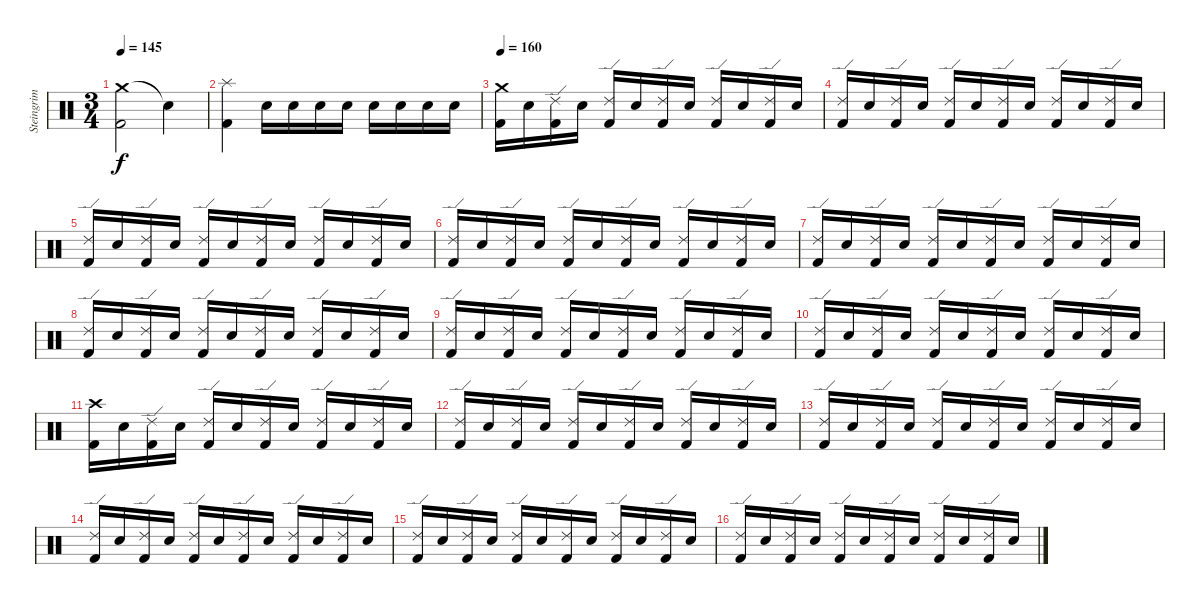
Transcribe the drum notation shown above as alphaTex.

\track ("Steingrim Trommur" "Steingrim ") {instrument percussion}
\staff {score}
\articulation defaults
\ts (3 4)
\tempo 145
\clef neutral
\ks c
("Crash medium (hit)" "Kick (hit) 2").2{dy f} "Snare (hit)"{t}.4 |
("Splash (hit)" "Kick (hit) 2").4 "Electric Snare (hit)".16 "Electric Snare (hit)".16 "Electric Snare (hit)".16 "Electric Snare (hit)".16 "Electric Snare (hit)".16 "Electric Snare (hit)".16 "Electric Snare (hit)".16 "Electric Snare (hit)".16 |
\tempo 160
("Crash medium (hit)" "Kick (hit) 2").16 "Electric Snare (hit)".16 ("Ride (edge) 2" "Kick (hit) 2").16 "Electric Snare (hit)".16 ("Ride (edge) 2" "Kick (hit) 2").16 "Electric Snare (hit)".16 ("Ride (edge) 2" "Kick (hit) 2").16 "Electric Snare (hit)".16 ("Ride (edge) 2" "Kick (hit) 2").16 "Electric Snare (hit)".16 ("Ride (edge) 2" "Kick (hit) 2").16 "Electric Snare (hit)".16 |
("Ride (edge) 2" "Kick (hit) 2").16 "Electric Snare (hit)".16 ("Ride (edge) 2" "Kick (hit) 2").16 "Electric Snare (hit)".16 ("Ride (edge) 2" "Kick (hit) 2").16 "Electric Snare (hit)".16 ("Ride (edge) 2" "Kick (hit) 2").16 "Electric Snare (hit)".16 ("Ride (edge) 2" "Kick (hit) 2").16 "Electric Snare (hit)".16 ("Ride (edge) 2" "Kick (hit) 2").16 "Electric Snare (hit)".16 |
("Ride (edge) 2" "Kick (hit) 2").16 "Electric Snare (hit)".16 ("Ride (edge) 2" "Kick (hit) 2").16 "Electric Snare (hit)".16 ("Ride (edge) 2" "Kick (hit) 2").16 "Electric Snare (hit)".16 ("Ride (edge) 2" "Kick (hit) 2").16 "Electric Snare (hit)".16 ("Ride (edge) 2" "Kick (hit) 2").16 "Electric Snare (hit)".16 ("Ride (edge) 2" "Kick (hit) 2").16 "Electric Snare (hit)".16 |
("Ride (edge) 2" "Kick (hit) 2").16 "Electric Snare (hit)".16 ("Ride (edge) 2" "Kick (hit) 2").16 "Electric Snare (hit)".16 ("Ride (edge) 2" "Kick (hit) 2").16 "Electric Snare (hit)".16 ("Ride (edge) 2" "Kick (hit) 2").16 "Electric Snare (hit)".16 ("Ride (edge) 2" "Kick (hit) 2").16 "Electric Snare (hit)".16 ("Ride (edge) 2" "Kick (hit) 2").16 "Electric Snare (hit)".16 |
("Ride (edge) 2" "Kick (hit) 2").16 "Electric Snare (hit)".16 ("Ride (edge) 2" "Kick (hit) 2").16 "Electric Snare (hit)".16 ("Ride (edge) 2" "Kick (hit) 2").16 "Electric Snare (hit)".16 ("Ride (edge) 2" "Kick (hit) 2").16 "Electric Snare (hit)".16 ("Ride (edge) 2" "Kick (hit) 2").16 "Electric Snare (hit)".16 ("Ride (edge) 2" "Kick (hit) 2").16 "Electric Snare (hit)".16 |
("Ride (edge) 2" "Kick (hit) 2").16 "Electric Snare (hit)".16 ("Ride (edge) 2" "Kick (hit) 2").16 "Electric Snare (hit)".16 ("Ride (edge) 2" "Kick (hit) 2").16 "Electric Snare (hit)".16 ("Ride (edge) 2" "Kick (hit) 2").16 "Electric Snare (hit)".16 ("Ride (edge) 2" "Kick (hit) 2").16 "Electric Snare (hit)".16 ("Ride (edge) 2" "Kick (hit) 2").16 "Electric Snare (hit)".16 |
("Ride (edge) 2" "Kick (hit) 2").16 "Electric Snare (hit)".16 ("Ride (edge) 2" "Kick (hit) 2").16 "Electric Snare (hit)".16 ("Ride (edge) 2" "Kick (hit) 2").16 "Electric Snare (hit)".16 ("Ride (edge) 2" "Kick (hit) 2").16 "Electric Snare (hit)".16 ("Ride (edge) 2" "Kick (hit) 2").16 "Electric Snare (hit)".16 ("Ride (edge) 2" "Kick (hit) 2").16 "Electric Snare (hit)".16 |
("Ride (edge) 2" "Kick (hit) 2").16 "Electric Snare (hit)".16 ("Ride (edge) 2" "Kick (hit) 2").16 "Electric Snare (hit)".16 ("Ride (edge) 2" "Kick (hit) 2").16 "Electric Snare (hit)".16 ("Ride (edge) 2" "Kick (hit) 2").16 "Electric Snare (hit)".16 ("Ride (edge) 2" "Kick (hit) 2").16 "Electric Snare (hit)".16 ("Ride (edge) 2" "Kick (hit) 2").16 "Electric Snare (hit)".16 |
("Crash high (hit)" "Kick (hit) 2").16 "Electric Snare (hit)".16 ("Ride (edge) 2" "Kick (hit) 2").16 "Electric Snare (hit)".16 ("Ride (edge) 2" "Kick (hit) 2").16 "Electric Snare (hit)".16 ("Ride (edge) 2" "Kick (hit) 2").16 "Electric Snare (hit)".16 ("Ride (edge) 2" "Kick (hit) 2").16 "Electric Snare (hit)".16 ("Ride (edge) 2" "Kick (hit) 2").16 "Electric Snare (hit)".16 |
("Ride (edge) 2" "Kick (hit) 2").16 "Electric Snare (hit)".16 ("Ride (edge) 2" "Kick (hit) 2").16 "Electric Snare (hit)".16 ("Ride (edge) 2" "Kick (hit) 2").16 "Electric Snare (hit)".16 ("Ride (edge) 2" "Kick (hit) 2").16 "Electric Snare (hit)".16 ("Ride (edge) 2" "Kick (hit) 2").16 "Electric Snare (hit)".16 ("Ride (edge) 2" "Kick (hit) 2").16 "Electric Snare (hit)".16 |
("Ride (edge) 2" "Kick (hit) 2").16 "Electric Snare (hit)".16 ("Ride (edge) 2" "Kick (hit) 2").16 "Electric Snare (hit)".16 ("Ride (edge) 2" "Kick (hit) 2").16 "Electric Snare (hit)".16 ("Ride (edge) 2" "Kick (hit) 2").16 "Electric Snare (hit)".16 ("Ride (edge) 2" "Kick (hit) 2").16 "Electric Snare (hit)".16 ("Ride (edge) 2" "Kick (hit) 2").16 "Electric Snare (hit)".16 |
("Ride (edge) 2" "Kick (hit) 2").16 "Electric Snare (hit)".16 ("Ride (edge) 2" "Kick (hit) 2").16 "Electric Snare (hit)".16 ("Ride (edge) 2" "Kick (hit) 2").16 "Electric Snare (hit)".16 ("Ride (edge) 2" "Kick (hit) 2").16 "Electric Snare (hit)".16 ("Ride (edge) 2" "Kick (hit) 2").16 "Electric Snare (hit)".16 ("Ride (edge) 2" "Kick (hit) 2").16 "Electric Snare (hit)".16 |
("Ride (edge) 2" "Kick (hit) 2").16 "Electric Snare (hit)".16 ("Ride (edge) 2" "Kick (hit) 2").16 "Electric Snare (hit)".16 ("Ride (edge) 2" "Kick (hit) 2").16 "Electric Snare (hit)".16 ("Ride (edge) 2" "Kick (hit) 2").16 "Electric Snare (hit)".16 ("Ride (edge) 2" "Kick (hit) 2").16 "Electric Snare (hit)".16 ("Ride (edge) 2" "Kick (hit) 2").16 "Electric Snare (hit)".16 |
("Ride (edge) 2" "Kick (hit) 2").16 "Electric Snare (hit)".16 ("Ride (edge) 2" "Kick (hit) 2").16 "Electric Snare (hit)".16 ("Ride (edge) 2" "Kick (hit) 2").16 "Electric Snare (hit)".16 ("Ride (edge) 2" "Kick (hit) 2").16 "Electric Snare (hit)".16 ("Ride (edge) 2" "Kick (hit) 2").16 "Electric Snare (hit)".16 ("Ride (edge) 2" "Kick (hit) 2").16 "Electric Snare (hit)".16
